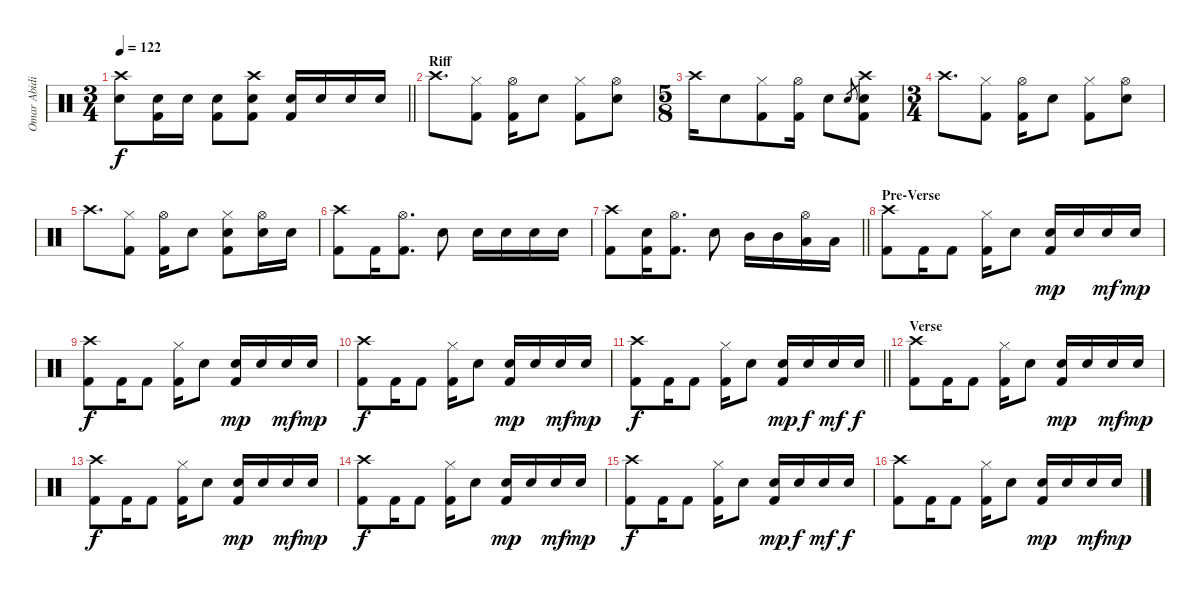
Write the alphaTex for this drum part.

\track ("Omar Abidi" "Omar Abidi") {instrument percussion}
\staff {score}
\articulation defaults
\ts (3 4)
\tempo 122
\clef neutral
\barLineRight lightlight
\ks c
("Crash high (hit)" "Electric Snare (hit)").8{dy f} ("Electric Snare (hit)" "Kick (hit) 2").16 "Electric Snare (hit)".16 ("Electric Snare (hit)" "Kick (hit) 2").8 ("Crash high (hit)" "Electric Snare (hit)" "Kick (hit) 2").8 ("Electric Snare (hit)" "Kick (hit) 2").16 "Electric Snare (hit)".16 "Electric Snare (hit)".16 "Electric Snare (hit)".16 |
\section ("" "Riff")
"Crash high (hit)".8{d} ("Hi-Hat (closed)" "Kick (hit) 2").8 ("Hi-Hat (open)" "Kick (hit) 2").16 "Electric Snare (hit)".8 ("Hi-Hat (closed)" "Kick (hit) 2").8 ("Hi-Hat (open)" "Electric Snare (hit)").8 |
\ts (5 8)
"Crash high (hit)".16 "Electric Snare (hit)".8 ("Hi-Hat (closed)" "Kick (hit) 2").8 ("Hi-Hat (open)" "Kick (hit) 2").16 "Electric Snare (hit)".8 "Electric Snare (hit)".8{gr} ("Crash high (hit)" "Electric Snare (hit)" "Kick (hit) 2").8 |
\ts (3 4)
"Crash high (hit)".8{d} ("Hi-Hat (closed)" "Kick (hit) 2").8 ("Hi-Hat (open)" "Kick (hit) 2").16 "Electric Snare (hit)".8 ("Hi-Hat (closed)" "Kick (hit) 2").8 ("Hi-Hat (open)" "Electric Snare (hit)").8 |
"Crash high (hit)".8{d} ("Hi-Hat (closed)" "Kick (hit) 2").8 ("Hi-Hat (open)" "Kick (hit) 2").16 "Electric Snare (hit)".8 ("Hi-Hat (closed)" "Electric Snare (hit)" "Kick (hit) 2").8 ("Hi-Hat (open)" "Electric Snare (hit)").16 "Electric Snare (hit)".16 |
("Crash high (hit)" "Kick (hit) 2").8 "Kick (hit) 2".16 ("Hi-Hat (open)" "Kick (hit) 2").8{d} "Electric Snare (hit)".8 "Electric Snare (hit)".16 "Electric Snare (hit)".16 "Electric Snare (hit)".16 "Electric Snare (hit)".16 |
\barLineRight lightlight
("Crash high (hit)" "Kick (hit) 2").8 ("Electric Snare (hit)" "Kick (hit) 2").16 ("Hi-Hat (open)" "Kick (hit) 2").8{d} "Electric Snare (hit)".8 "Mid Tom (hit)".16 "Mid Tom (hit)".16 ("Hi-Hat (open)" "Low Tom (hit)").16 "Low Tom (hit)".16 |
\section ("" "Pre-Verse")
("Crash high (hit)" "Kick (hit) 2").8{volume 11} "Kick (hit) 2".16 "Kick (hit) 2".8 ("Hi-Hat (closed)" "Kick (hit) 2").16 "Electric Snare (hit)".8 ("Snare (hit) 2" "Kick (hit) 2").16{dy mp} "Snare (hit) 2".16 "Snare (hit) 2".16{dy mf} "Snare (hit) 2".16{dy mp} |
("Crash high (hit)" "Kick (hit) 2").8{dy f} "Kick (hit) 2".16 "Kick (hit) 2".8 ("Hi-Hat (closed)" "Kick (hit) 2").16 "Electric Snare (hit)".8 ("Snare (hit) 2" "Kick (hit) 2").16{dy mp} "Snare (hit) 2".16 "Snare (hit) 2".16{dy mf} "Snare (hit) 2".16{dy mp} |
("Crash high (hit)" "Kick (hit) 2").8{dy f} "Kick (hit) 2".16 "Kick (hit) 2".8 ("Hi-Hat (closed)" "Kick (hit) 2").16 "Electric Snare (hit)".8 ("Snare (hit) 2" "Kick (hit) 2").16{dy mp} "Snare (hit) 2".16 "Snare (hit) 2".16{dy mf} "Snare (hit) 2".16{dy mp} |
\barLineRight lightlight
("Crash high (hit)" "Kick (hit) 2").8{dy f} "Kick (hit) 2".16 "Kick (hit) 2".8 ("Hi-Hat (closed)" "Kick (hit) 2").16 "Electric Snare (hit)".8 ("Electric Snare (hit)" "Kick (hit) 2").16{dy mp} "Electric Snare (hit)".16{dy f} "Snare (hit) 2".16{dy mf} "Electric Snare (hit)".16{dy f} |
\section ("" "Verse")
("Crash high (hit)" "Kick (hit) 2").8 "Kick (hit) 2".16 "Kick (hit) 2".8 ("Hi-Hat (closed)" "Kick (hit) 2").16 "Electric Snare (hit)".8 ("Snare (hit) 2" "Kick (hit) 2").16{dy mp} "Snare (hit) 2".16 "Snare (hit) 2".16{dy mf} "Snare (hit) 2".16{dy mp} |
("Crash high (hit)" "Kick (hit) 2").8{dy f} "Kick (hit) 2".16 "Kick (hit) 2".8 ("Hi-Hat (closed)" "Kick (hit) 2").16 "Electric Snare (hit)".8 ("Snare (hit) 2" "Kick (hit) 2").16{dy mp} "Snare (hit) 2".16 "Snare (hit) 2".16{dy mf} "Snare (hit) 2".16{dy mp} |
("Crash high (hit)" "Kick (hit) 2").8{dy f} "Kick (hit) 2".16 "Kick (hit) 2".8 ("Hi-Hat (closed)" "Kick (hit) 2").16 "Electric Snare (hit)".8 ("Snare (hit) 2" "Kick (hit) 2").16{dy mp} "Snare (hit) 2".16 "Snare (hit) 2".16{dy mf} "Snare (hit) 2".16{dy mp} |
("Crash high (hit)" "Kick (hit) 2").8{dy f} "Kick (hit) 2".16 "Kick (hit) 2".8 ("Hi-Hat (closed)" "Kick (hit) 2").16 "Electric Snare (hit)".8 ("Electric Snare (hit)" "Kick (hit) 2").16{dy mp} "Electric Snare (hit)".16{dy f} "Snare (hit) 2".16{dy mf} "Electric Snare (hit)".16{dy f} |
("Crash high (hit)" "Kick (hit) 2").8 "Kick (hit) 2".16 "Kick (hit) 2".8 ("Hi-Hat (closed)" "Kick (hit) 2").16 "Electric Snare (hit)".8 ("Snare (hit) 2" "Kick (hit) 2").16{dy mp} "Snare (hit) 2".16 "Snare (hit) 2".16{dy mf} "Snare (hit) 2".16{dy mp}
